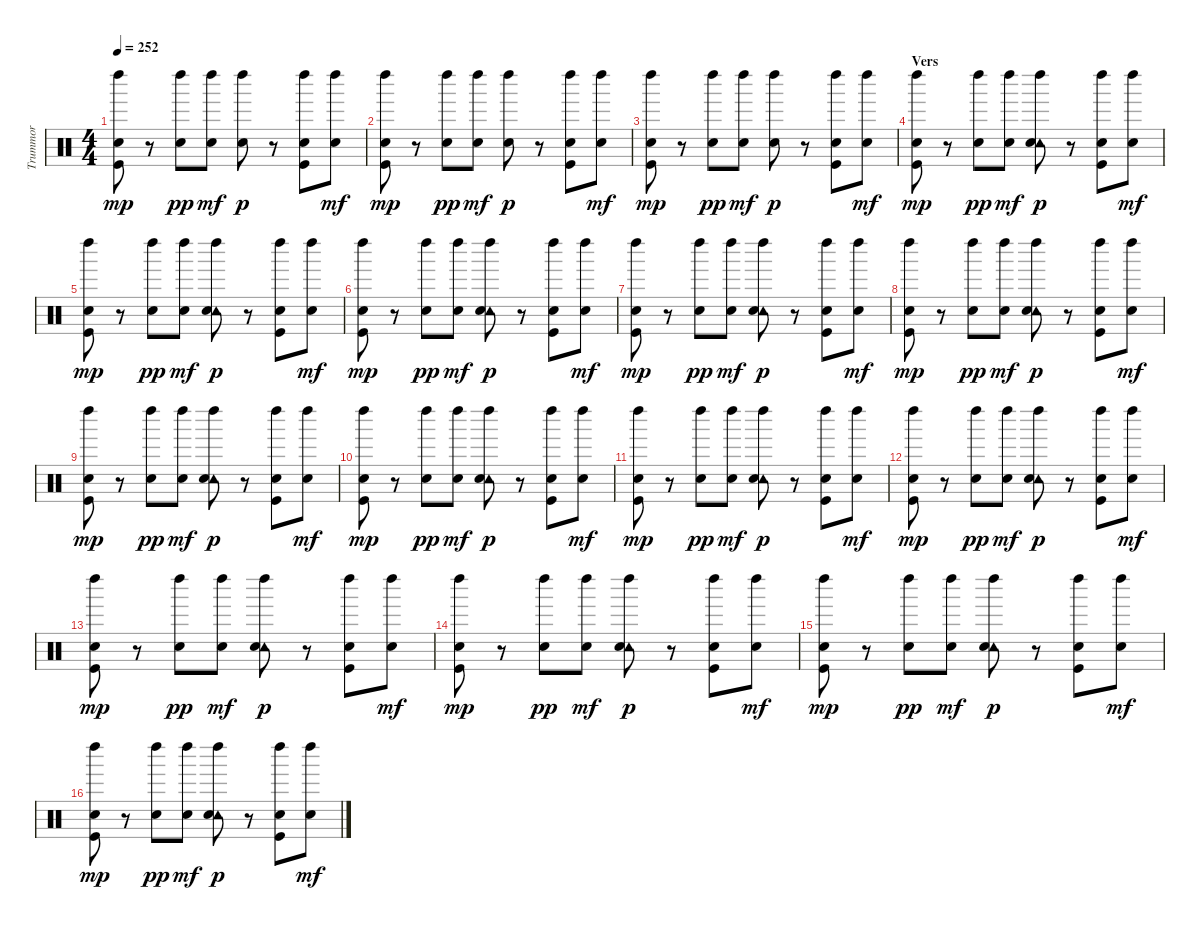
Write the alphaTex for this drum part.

\track ("Trummor" "Trummor") {instrument percussion}
\staff {score}
\articulation defaults
\ts (4 4)
\tempo 252
\clef neutral
\ks c
("Left Maraca (hit)" "Snare (hit) 2" "Kick (hit)").8{dy mp} r.8 ("Left Maraca (hit)" "Snare (hit) 2").8{dy pp} ("Left Maraca (hit)" "Snare (hit) 2").8{dy mf} ("Left Maraca (hit)" "Snare (hit) 2").8{dy p} r.8 ("Left Maraca (hit)" "Snare (hit) 2" "Kick (hit)").8 ("Left Maraca (hit)" "Snare (hit) 2").8{dy mf} |
("Left Maraca (hit)" "Snare (hit) 2" "Kick (hit)").8{dy mp} r.8 ("Left Maraca (hit)" "Snare (hit) 2").8{dy pp} ("Left Maraca (hit)" "Snare (hit) 2").8{dy mf} ("Left Maraca (hit)" "Snare (hit) 2").8{dy p} r.8 ("Left Maraca (hit)" "Snare (hit) 2" "Kick (hit)").8 ("Left Maraca (hit)" "Snare (hit) 2").8{dy mf} |
("Left Maraca (hit)" "Snare (hit) 2" "Kick (hit)").8{dy mp} r.8 ("Left Maraca (hit)" "Snare (hit) 2").8{dy pp} ("Left Maraca (hit)" "Snare (hit) 2").8{dy mf} ("Left Maraca (hit)" "Snare (hit) 2").8{dy p} r.8 ("Left Maraca (hit)" "Snare (hit) 2" "Kick (hit)").8 ("Left Maraca (hit)" "Snare (hit) 2").8{dy mf} |
\section ("" "Vers ")
("Left Maraca (hit)" "Snare (hit) 2" "Kick (hit)").8{dy mp} r.8 ("Left Maraca (hit)" "Snare (hit) 2").8{dy pp} ("Left Maraca (hit)" "Snare (hit) 2").8{dy mf} ("Left Maraca (hit)" "Tambourine (hit)" "Snare (hit) 2").8{dy p} r.8 ("Left Maraca (hit)" "Snare (hit) 2" "Kick (hit)").8 ("Left Maraca (hit)" "Snare (hit) 2").8{dy mf} |
("Left Maraca (hit)" "Snare (hit) 2" "Kick (hit)").8{dy mp} r.8 ("Left Maraca (hit)" "Snare (hit) 2").8{dy pp} ("Left Maraca (hit)" "Snare (hit) 2").8{dy mf} ("Left Maraca (hit)" "Tambourine (hit)" "Snare (hit) 2").8{dy p} r.8 ("Left Maraca (hit)" "Snare (hit) 2" "Kick (hit)").8 ("Left Maraca (hit)" "Snare (hit) 2").8{dy mf} |
("Left Maraca (hit)" "Snare (hit) 2" "Kick (hit)").8{dy mp} r.8 ("Left Maraca (hit)" "Snare (hit) 2").8{dy pp} ("Left Maraca (hit)" "Snare (hit) 2").8{dy mf} ("Left Maraca (hit)" "Tambourine (hit)" "Snare (hit) 2").8{dy p} r.8 ("Left Maraca (hit)" "Snare (hit) 2" "Kick (hit)").8 ("Left Maraca (hit)" "Snare (hit) 2").8{dy mf} |
("Left Maraca (hit)" "Snare (hit) 2" "Kick (hit)").8{dy mp} r.8 ("Left Maraca (hit)" "Snare (hit) 2").8{dy pp} ("Left Maraca (hit)" "Snare (hit) 2").8{dy mf} ("Left Maraca (hit)" "Tambourine (hit)" "Snare (hit) 2").8{dy p} r.8 ("Left Maraca (hit)" "Snare (hit) 2" "Kick (hit)").8 ("Left Maraca (hit)" "Snare (hit) 2").8{dy mf} |
("Left Maraca (hit)" "Snare (hit) 2" "Kick (hit)").8{dy mp} r.8 ("Left Maraca (hit)" "Snare (hit) 2").8{dy pp} ("Left Maraca (hit)" "Snare (hit) 2").8{dy mf} ("Left Maraca (hit)" "Tambourine (hit)" "Snare (hit) 2").8{dy p} r.8 ("Left Maraca (hit)" "Snare (hit) 2" "Kick (hit)").8 ("Left Maraca (hit)" "Snare (hit) 2").8{dy mf} |
("Left Maraca (hit)" "Snare (hit) 2" "Kick (hit)").8{dy mp} r.8 ("Left Maraca (hit)" "Snare (hit) 2").8{dy pp} ("Left Maraca (hit)" "Snare (hit) 2").8{dy mf} ("Left Maraca (hit)" "Tambourine (hit)" "Snare (hit) 2").8{dy p} r.8 ("Left Maraca (hit)" "Snare (hit) 2" "Kick (hit)").8 ("Left Maraca (hit)" "Snare (hit) 2").8{dy mf} |
("Left Maraca (hit)" "Snare (hit) 2" "Kick (hit)").8{dy mp} r.8 ("Left Maraca (hit)" "Snare (hit) 2").8{dy pp} ("Left Maraca (hit)" "Snare (hit) 2").8{dy mf} ("Left Maraca (hit)" "Tambourine (hit)" "Snare (hit) 2").8{dy p} r.8 ("Left Maraca (hit)" "Snare (hit) 2" "Kick (hit)").8 ("Left Maraca (hit)" "Snare (hit) 2").8{dy mf} |
("Left Maraca (hit)" "Snare (hit) 2" "Kick (hit)").8{dy mp} r.8 ("Left Maraca (hit)" "Snare (hit) 2").8{dy pp} ("Left Maraca (hit)" "Snare (hit) 2").8{dy mf} ("Left Maraca (hit)" "Tambourine (hit)" "Snare (hit) 2").8{dy p} r.8 ("Left Maraca (hit)" "Snare (hit) 2" "Kick (hit)").8 ("Left Maraca (hit)" "Snare (hit) 2").8{dy mf} |
("Left Maraca (hit)" "Snare (hit) 2" "Kick (hit)").8{dy mp} r.8 ("Left Maraca (hit)" "Snare (hit) 2").8{dy pp} ("Left Maraca (hit)" "Snare (hit) 2").8{dy mf} ("Left Maraca (hit)" "Tambourine (hit)" "Snare (hit) 2").8{dy p} r.8 ("Left Maraca (hit)" "Snare (hit) 2" "Kick (hit)").8 ("Left Maraca (hit)" "Snare (hit) 2").8{dy mf} |
("Left Maraca (hit)" "Snare (hit) 2" "Kick (hit)").8{dy mp} r.8 ("Left Maraca (hit)" "Snare (hit) 2").8{dy pp} ("Left Maraca (hit)" "Snare (hit) 2").8{dy mf} ("Left Maraca (hit)" "Tambourine (hit)" "Snare (hit) 2").8{dy p} r.8 ("Left Maraca (hit)" "Snare (hit) 2" "Kick (hit)").8 ("Left Maraca (hit)" "Snare (hit) 2").8{dy mf} |
("Left Maraca (hit)" "Snare (hit) 2" "Kick (hit)").8{dy mp} r.8 ("Left Maraca (hit)" "Snare (hit) 2").8{dy pp} ("Left Maraca (hit)" "Snare (hit) 2").8{dy mf} ("Left Maraca (hit)" "Tambourine (hit)" "Snare (hit) 2").8{dy p} r.8 ("Left Maraca (hit)" "Snare (hit) 2" "Kick (hit)").8 ("Left Maraca (hit)" "Snare (hit) 2").8{dy mf} |
("Left Maraca (hit)" "Snare (hit) 2" "Kick (hit)").8{dy mp} r.8 ("Left Maraca (hit)" "Snare (hit) 2").8{dy pp} ("Left Maraca (hit)" "Snare (hit) 2").8{dy mf} ("Left Maraca (hit)" "Tambourine (hit)" "Snare (hit) 2").8{dy p} r.8 ("Left Maraca (hit)" "Snare (hit) 2" "Kick (hit)").8 ("Left Maraca (hit)" "Snare (hit) 2").8{dy mf} |
("Left Maraca (hit)" "Snare (hit) 2" "Kick (hit)").8{dy mp} r.8 ("Left Maraca (hit)" "Snare (hit) 2").8{dy pp} ("Left Maraca (hit)" "Snare (hit) 2").8{dy mf} ("Left Maraca (hit)" "Tambourine (hit)" "Snare (hit) 2").8{dy p} r.8 ("Left Maraca (hit)" "Snare (hit) 2" "Kick (hit)").8 ("Left Maraca (hit)" "Snare (hit) 2").8{dy mf}
